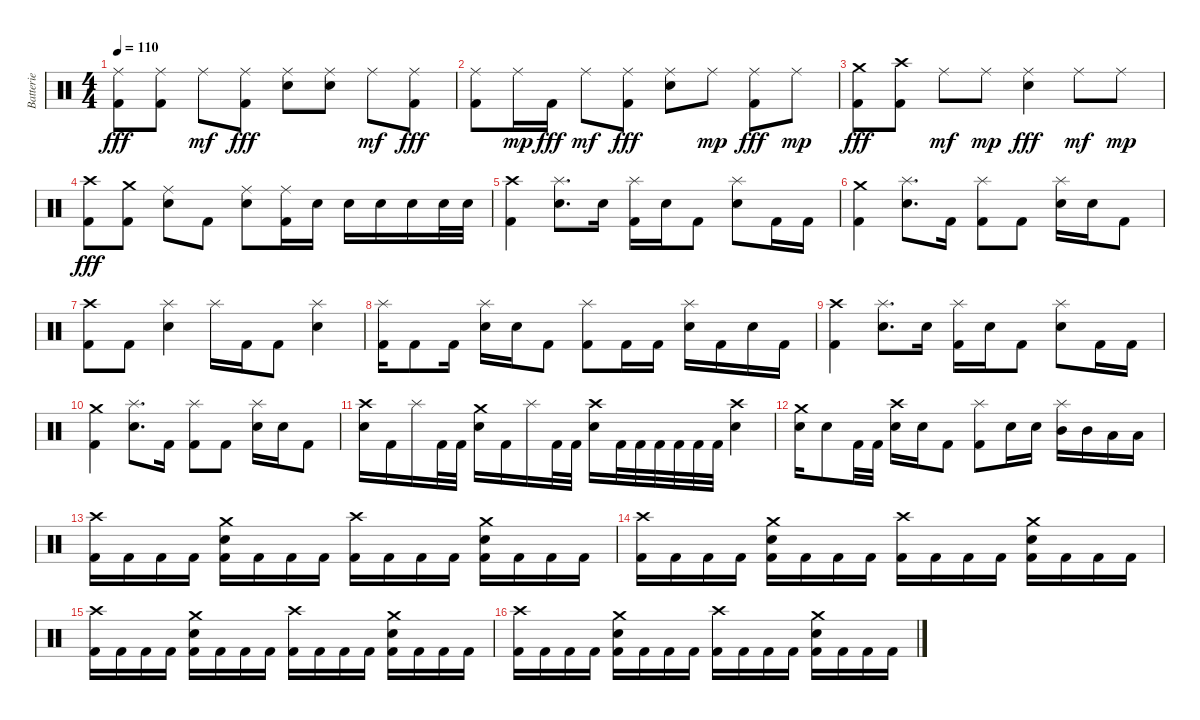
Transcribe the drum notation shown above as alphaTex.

\track ("Batterie" "Batterie") {instrument percussion}
\staff {score}
\articulation defaults
\ts (4 4)
\tempo 110
\clef neutral
\ks c
("Ride (middle)" "Kick (hit) 2").8{dy fff} ("Ride (middle)" "Kick (hit) 2").8 "Ride (middle)".8{dy mf} ("Ride (middle)" "Kick (hit) 2").8{dy fff} ("Ride (middle)" "Electric Snare (hit)").8 ("Ride (middle)" "Electric Snare (hit)").8 "Ride (middle)".8{dy mf} ("Ride (middle)" "Kick (hit) 2").8{dy fff} |
("Ride (middle)" "Kick (hit) 2").8 "Ride (middle)".16{dy mp} "Kick (hit) 2".16{dy fff} "Ride (middle)".8{dy mf} ("Ride (middle)" "Kick (hit) 2").8{dy fff} ("Ride (middle)" "Electric Snare (hit)").8 "Ride (middle)".8{dy mp} ("Ride (middle)" "Kick (hit) 2").8{dy fff} "Ride (middle)".8{dy mp} |
("Crash medium (hit)" "Kick (hit) 2").8{dy fff} ("Crash high (hit)" "Kick (hit) 2").8 "Ride (middle)".8{dy mf} "Ride (middle)".8{dy mp} ("Ride (middle)" "Electric Snare (hit)").4{dy fff} "Ride (middle)".8{dy mf} "Ride (middle)".8{dy mp} |
("Crash high (hit)" "Kick (hit) 2").8{dy fff} ("Crash medium (hit)" "Kick (hit) 2").8 ("Ride (middle)" "Electric Snare (hit)").8 "Kick (hit) 2".8 ("Ride (middle)" "Electric Snare (hit)").8 ("Ride (middle)" "Kick (hit) 2").16 "Electric Snare (hit)".16 "Electric Snare (hit)".16 "Electric Snare (hit)".16 "Electric Snare (hit)".16 "Electric Snare (hit)".32 "Electric Snare (hit)".32 |
("Crash high (hit)" "Kick (hit) 2").4 ("Splash (hit)" "Electric Snare (hit)").8{d} "Electric Snare (hit)".16 ("Splash (hit)" "Kick (hit) 2").16 "Electric Snare (hit)".16 "Kick (hit) 2".8 ("Splash (hit)" "Electric Snare (hit)").8 "Kick (hit) 2".16 "Kick (hit) 2".16 |
("Crash medium (hit)" "Kick (hit) 2").4 ("Splash (hit)" "Electric Snare (hit)").8{d} "Kick (hit) 2".16 ("Splash (hit)" "Kick (hit) 2").8 "Kick (hit) 2".8 ("Splash (hit)" "Electric Snare (hit)").16 "Electric Snare (hit)".16 "Kick (hit) 2".8 |
("Crash high (hit)" "Kick (hit) 2").8 "Kick (hit) 2".8 ("Splash (hit)" "Electric Snare (hit)").4 "Splash (hit)".16 "Kick (hit) 2".16 "Kick (hit) 2".8 ("Splash (hit)" "Electric Snare (hit)").4 |
("Splash (hit)" "Kick (hit) 2").16 "Kick (hit) 2".8 "Kick (hit) 2".16 ("Splash (hit)" "Electric Snare (hit)").16 "Electric Snare (hit)".16 "Kick (hit) 2".8 ("Splash (hit)" "Kick (hit) 2").8 "Kick (hit) 2".16 "Kick (hit) 2".16 ("Splash (hit)" "Electric Snare (hit)").16 "Kick (hit) 2".16 "Electric Snare (hit)".16 "Kick (hit) 2".16 |
("Crash high (hit)" "Kick (hit) 2").4 ("Splash (hit)" "Electric Snare (hit)").8{d} "Electric Snare (hit)".16 ("Splash (hit)" "Kick (hit) 2").16 "Electric Snare (hit)".16 "Kick (hit) 2".8 ("Splash (hit)" "Electric Snare (hit)").8 "Kick (hit) 2".16 "Kick (hit) 2".16 |
("Crash medium (hit)" "Kick (hit) 2").4 ("Splash (hit)" "Electric Snare (hit)").8{d} "Kick (hit) 2".16 ("Splash (hit)" "Kick (hit) 2").8 "Kick (hit) 2".8 ("Splash (hit)" "Electric Snare (hit)").16 "Electric Snare (hit)".16 "Kick (hit) 2".8 |
("Crash high (hit)" "Electric Snare (hit)").16 "Kick (hit) 2".16 "Splash (hit)".16 "Kick (hit) 2".32 "Kick (hit) 2".32 ("Crash medium (hit)" "Electric Snare (hit)").16 "Kick (hit) 2".16 "Splash (hit)".16 "Kick (hit) 2".32 "Kick (hit) 2".32 ("Crash high (hit)" "Electric Snare (hit)").16 "Kick (hit) 2".32 "Kick (hit) 2".32 "Kick (hit) 2".32 "Kick (hit) 2".32 "Kick (hit) 2".32 "Kick (hit) 2".32 ("Crash high (hit)" "Electric Snare (hit)").4 |
("Crash medium (hit)" "Electric Snare (hit)").16 "Electric Snare (hit)".8 "Kick (hit) 2".32 "Kick (hit) 2".32 ("Crash high (hit)" "Electric Snare (hit)").16 "Electric Snare (hit)".16 "Kick (hit) 2".8 ("Splash (hit)" "Kick (hit) 2").8 "Electric Snare (hit)".16 "Electric Snare (hit)".16 ("Splash (hit)" "Mid Tom (hit)").16 "Mid Tom (hit)".16 "Low Tom (hit)".16 "Low Tom (hit)".16 |
("Crash high (hit)" "Kick (hit) 2").16 "Kick (hit) 2".16 "Kick (hit) 2".16 "Kick (hit) 2".16 ("Crash medium (hit)" "Electric Snare (hit)" "Kick (hit) 2").16 "Kick (hit) 2".16 "Kick (hit) 2".16 "Kick (hit) 2".16 ("Crash high (hit)" "Kick (hit) 2").16 "Kick (hit) 2".16 "Kick (hit) 2".16 "Kick (hit) 2".16 ("Crash medium (hit)" "Electric Snare (hit)" "Kick (hit) 2").16 "Kick (hit) 2".16 "Kick (hit) 2".16 "Kick (hit) 2".16 |
("Crash high (hit)" "Kick (hit) 2").16 "Kick (hit) 2".16 "Kick (hit) 2".16 "Kick (hit) 2".16 ("Crash medium (hit)" "Electric Snare (hit)" "Kick (hit) 2").16 "Kick (hit) 2".16 "Kick (hit) 2".16 "Kick (hit) 2".16 ("Crash high (hit)" "Kick (hit) 2").16 "Kick (hit) 2".16 "Kick (hit) 2".16 "Kick (hit) 2".16 ("Crash medium (hit)" "Electric Snare (hit)" "Kick (hit) 2").16 "Kick (hit) 2".16 "Kick (hit) 2".16 "Kick (hit) 2".16 |
("Crash high (hit)" "Kick (hit) 2").16 "Kick (hit) 2".16 "Kick (hit) 2".16 "Kick (hit) 2".16 ("Crash medium (hit)" "Electric Snare (hit)" "Kick (hit) 2").16 "Kick (hit) 2".16 "Kick (hit) 2".16 "Kick (hit) 2".16 ("Crash high (hit)" "Kick (hit) 2").16 "Kick (hit) 2".16 "Kick (hit) 2".16 "Kick (hit) 2".16 ("Crash medium (hit)" "Electric Snare (hit)" "Kick (hit) 2").16 "Kick (hit) 2".16 "Kick (hit) 2".16 "Kick (hit) 2".16 |
("Crash high (hit)" "Kick (hit) 2").16 "Kick (hit) 2".16 "Kick (hit) 2".16 "Kick (hit) 2".16 ("Crash medium (hit)" "Electric Snare (hit)" "Kick (hit) 2").16 "Kick (hit) 2".16 "Kick (hit) 2".16 "Kick (hit) 2".16 ("Crash high (hit)" "Kick (hit) 2").16 "Kick (hit) 2".16 "Kick (hit) 2".16 "Kick (hit) 2".16 ("Crash medium (hit)" "Electric Snare (hit)" "Kick (hit) 2").16 "Kick (hit) 2".16 "Kick (hit) 2".16 "Kick (hit) 2".16
